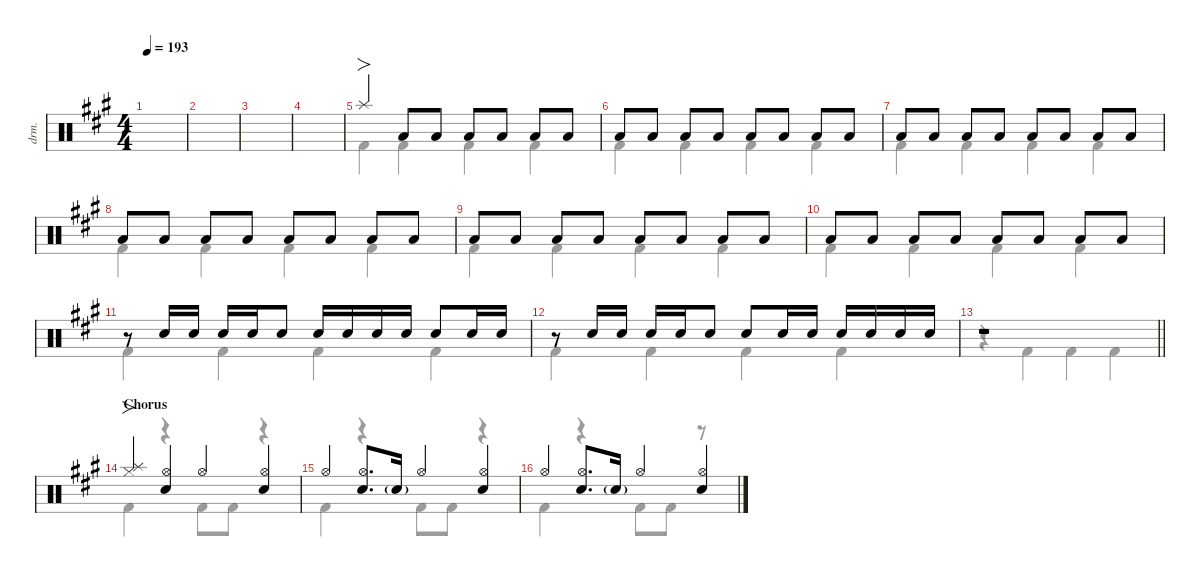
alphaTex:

\defaultSystemsLayout 4
\hideDynamics
\bracketExtendMode nobrackets
\track ("伊地知虹夏" "drm.") {instrument percussion}
\staff {score}
\articulation defaults
\voice
\ts (4 4)
\tempo 193
\clef neutral
\ks a
|
|
|
|
"Splash (hit)"{acc forcenatural}.4{fo beam Up} "Low Tom (hit)"{acc forcenatural}.8{beam Up} "Low Tom (hit)"{acc forcenatural}.8{beam Up} "Low Tom (hit)"{acc forcenatural}.8{beam Up} "Low Tom (hit)"{acc forcenatural}.8{beam Up} "Low Tom (hit)"{acc forcenatural}.8{beam Up} "Low Tom (hit)"{acc forcenatural}.8{beam Up} |
"Low Tom (hit)"{acc forcenatural}.8{beam Up} "Low Tom (hit)"{acc forcenatural}.8{beam Up} "Low Tom (hit)"{acc forcenatural}.8{beam Up} "Low Tom (hit)"{acc forcenatural}.8{beam Up} "Low Tom (hit)"{acc forcenatural}.8{beam Up} "Low Tom (hit)"{acc forcenatural}.8{beam Up} "Low Tom (hit)"{acc forcenatural}.8{beam Up} "Low Tom (hit)"{acc forcenatural}.8{beam Up} |
"Low Tom (hit)"{acc forcenatural}.8{beam Up} "Low Tom (hit)"{acc forcenatural}.8{beam Up} "Low Tom (hit)"{acc forcenatural}.8{beam Up} "Low Tom (hit)"{acc forcenatural}.8{beam Up} "Low Tom (hit)"{acc forcenatural}.8{beam Up} "Low Tom (hit)"{acc forcenatural}.8{beam Up} "Low Tom (hit)"{acc forcenatural}.8{beam Up} "Low Tom (hit)"{acc forcenatural}.8{beam Up} |
"Low Tom (hit)"{acc forcenatural}.8{beam Up} "Low Tom (hit)"{acc forcenatural}.8{beam Up} "Low Tom (hit)"{acc forcenatural}.8{beam Up} "Low Tom (hit)"{acc forcenatural}.8{beam Up} "Low Tom (hit)"{acc forcenatural}.8{beam Up} "Low Tom (hit)"{acc forcenatural}.8{beam Up} "Low Tom (hit)"{acc forcenatural}.8{beam Up} "Low Tom (hit)"{acc forcenatural}.8{beam Up} |
"Low Tom (hit)"{acc forcenatural}.8{beam Up} "Low Tom (hit)"{acc forcenatural}.8{beam Up} "Low Tom (hit)"{acc forcenatural}.8{beam Up} "Low Tom (hit)"{acc forcenatural}.8{beam Up} "Low Tom (hit)"{acc forcenatural}.8{beam Up} "Low Tom (hit)"{acc forcenatural}.8{beam Up} "Low Tom (hit)"{acc forcenatural}.8{beam Up} "Low Tom (hit)"{acc forcenatural}.8{beam Up} |
"Low Tom (hit)"{acc forcenatural}.8{beam Up} "Low Tom (hit)"{acc forcenatural}.8{beam Up} "Low Tom (hit)"{acc forcenatural}.8{beam Up} "Low Tom (hit)"{acc forcenatural}.8{beam Up} "Low Tom (hit)"{acc forcenatural}.8{beam Up} "Low Tom (hit)"{acc forcenatural}.8{beam Up} "Low Tom (hit)"{acc forcenatural}.8{beam Up} "Low Tom (hit)"{acc forcenatural}.8{beam Up} |
r.8{beam Up} "Snare (hit) 2"{acc forcenatural}.16{beam Up} "Snare (hit) 2"{acc forcenatural}.16{beam Up} "Snare (hit) 2"{acc forcenatural}.16{beam Up} "Snare (hit) 2"{acc forcenatural}.16{beam Up} "Snare (hit) 2"{acc forcenatural}.8{beam Up} "Snare (hit) 2"{acc forcenatural}.16{beam Up} "Snare (hit) 2"{acc forcenatural}.16{beam Up} "Snare (hit) 2"{acc forcenatural}.16{beam Up} "Snare (hit) 2"{acc forcenatural}.16{beam Up} "Snare (hit) 2"{acc forcenatural}.8{beam Up} "Snare (hit) 2"{acc forcenatural}.16{beam Up} "Snare (hit) 2"{acc forcenatural}.16{beam Up} |
r.8{beam Up} "Snare (hit) 2"{acc forcenatural}.16{beam Up} "Snare (hit) 2"{acc forcenatural}.16{beam Up} "Snare (hit) 2"{acc forcenatural}.16{beam Up} "Snare (hit) 2"{acc forcenatural}.16{beam Up} "Snare (hit) 2"{acc forcenatural}.8{beam Up} "Snare (hit) 2"{acc forcenatural}.8{beam Up} "Snare (hit) 2"{acc forcenatural}.16{beam Up} "Snare (hit) 2"{acc forcenatural}.16{beam Up} "Snare (hit) 2"{acc forcenatural}.16{beam Up} "Snare (hit) 2"{acc forcenatural}.16{beam Up} "Snare (hit) 2"{acc forcenatural}.16{beam Up} "Snare (hit) 2"{acc forcenatural}.16{beam Up} |
\barLineRight lightlight
r.1{beam Up} |
\section ("" "Chorus")
("Hi-Hat (closed)"{acc forcenatural} "Splash (hit)"{acc forcenatural}).4{fo beam Up} ("Hi-Hat (open)"{acc forcenatural} "Snare (hit) 2"{acc forcenatural}).4{beam Up} "Hi-Hat (open)"{acc forcenatural}.4{beam Up} ("Hi-Hat (open)"{acc forcenatural} "Snare (hit) 2"{acc forcenatural}).4{beam Up} |
"Hi-Hat (open)"{acc forcenatural}.4{beam Up} ("Hi-Hat (open)"{acc forcenatural} "Snare (hit) 2"{acc forcenatural}).8{d beam Up} "Snare (hit) 2"{g acc forcenatural}.16{beam Up} "Hi-Hat (open)"{acc forcenatural}.4{beam Up} ("Hi-Hat (open)"{acc forcenatural} "Snare (hit) 2"{acc forcenatural}).4{beam Up} |
"Hi-Hat (open)"{acc forcenatural}.4{beam Up} ("Hi-Hat (open)"{acc forcenatural} "Snare (hit) 2"{acc forcenatural}).8{d beam Up} "Snare (hit) 2"{g acc forcenatural}.16{beam Up} "Hi-Hat (open)"{acc forcenatural}.4{beam Up} ("Snare (hit) 2"{acc forcenatural} "Hi-Hat (open)"{acc forcenatural}).4{beam Up}
\voice
\clef neutral
\ottava regular
\simile none
\ks a
|
|
|
|
"Kick (hit) 2"{acc forcenatural}.4{beam Down} "Kick (hit) 2"{acc forcenatural}.4{beam Down} "Kick (hit) 2"{acc forcenatural}.4{beam Down} "Kick (hit) 2"{acc forcenatural}.4{beam Down} |
"Kick (hit) 2"{acc forcenatural}.4{beam Down} "Kick (hit) 2"{acc forcenatural}.4{beam Down} "Kick (hit) 2"{acc forcenatural}.4{beam Down} "Kick (hit) 2"{acc forcenatural}.4{beam Down} |
"Kick (hit) 2"{acc forcenatural}.4{beam Down} "Kick (hit) 2"{acc forcenatural}.4{beam Down} "Kick (hit) 2"{acc forcenatural}.4{beam Down} "Kick (hit) 2"{acc forcenatural}.4{beam Down} |
"Kick (hit) 2"{acc forcenatural}.4{beam Down} "Kick (hit) 2"{acc forcenatural}.4{beam Down} "Kick (hit) 2"{acc forcenatural}.4{beam Down} "Kick (hit) 2"{acc forcenatural}.4{beam Down} |
"Kick (hit) 2"{acc forcenatural}.4{beam Down} "Kick (hit) 2"{acc forcenatural}.4{beam Down} "Kick (hit) 2"{acc forcenatural}.4{beam Down} "Kick (hit) 2"{acc forcenatural}.4{beam Down} |
"Kick (hit) 2"{acc forcenatural}.4{beam Down} "Kick (hit) 2"{acc forcenatural}.4{beam Down} "Kick (hit) 2"{acc forcenatural}.4{beam Down} "Kick (hit) 2"{acc forcenatural}.4{beam Down} |
"Kick (hit) 2"{acc forcenatural}.4{beam Down} "Kick (hit) 2"{acc forcenatural}.4{beam Down} "Kick (hit) 2"{acc forcenatural}.4{beam Down} "Kick (hit) 2"{acc forcenatural}.4{beam Down} |
"Kick (hit) 2"{acc forcenatural}.4{beam Down} "Kick (hit) 2"{acc forcenatural}.4{beam Down} "Kick (hit) 2"{acc forcenatural}.4{beam Down} "Kick (hit) 2"{acc forcenatural}.4{beam Down} |
\barLineRight lightlight
r.4{beam Down} "Kick (hit) 2"{acc forcenatural}.4{beam Down} "Kick (hit) 2"{acc forcenatural}.4{beam Down} "Kick (hit) 2"{acc forcenatural}.4{beam Down} |
"Kick (hit) 2"{acc forcenatural}.4{beam Down} r.4{beam Down} "Kick (hit) 2"{acc forcenatural}.8{beam Down} "Kick (hit) 2"{acc forcenatural}.8{beam Down} r.4{beam Down} |
"Kick (hit) 2"{acc forcenatural}.4{beam Down} r.4{beam Down} "Kick (hit) 2"{acc forcenatural}.8{beam Down} "Kick (hit) 2"{acc forcenatural}.8{beam Down} r.4{beam Down} |
"Kick (hit) 2"{acc forcenatural}.4{beam Down} r.4{beam Down} "Kick (hit) 2"{acc forcenatural}.8{beam Down} "Kick (hit) 2"{acc forcenatural}.8{beam Down} r.8{beam Down}
